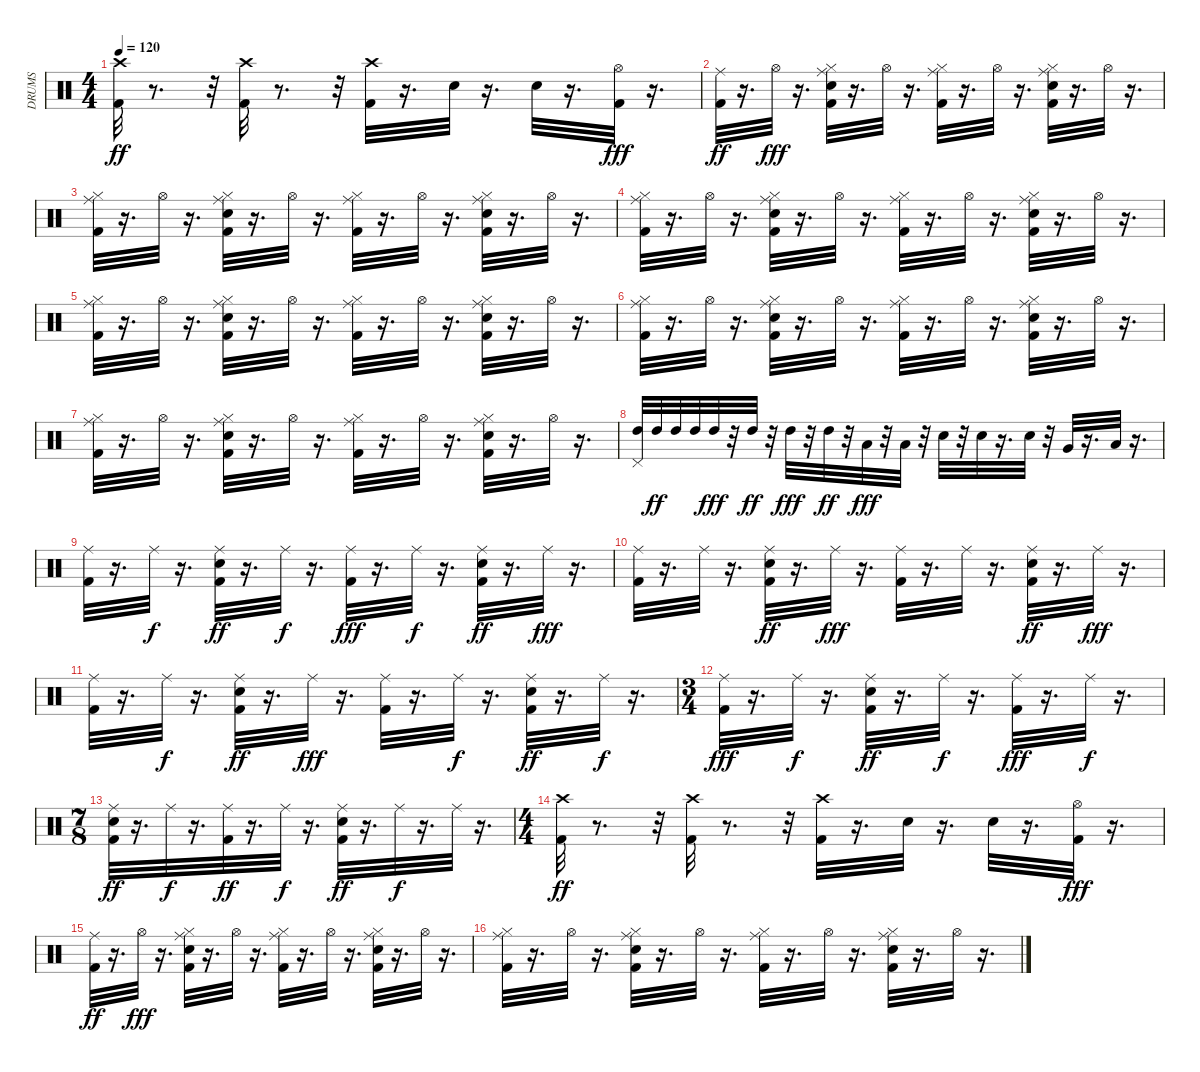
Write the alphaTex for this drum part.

\track ("DRUMS            " "DRUMS     ") {instrument percussion}
\staff {score}
\articulation defaults
\ts (4 4)
\tempo 120
\clef neutral
\ks c
("Kick (hit) 2" "Crash high (hit)").32{dy ff} r.8{d} r.32 ("Kick (hit) 2" "Crash high (hit)").32 r.8{d} r.32 ("Kick (hit) 2" "Crash high (hit)").32 r.16{d} "Snare (hit) 2".32 r.16{d} "Snare (hit) 2".32 r.16{d} ("Kick (hit) 2" "Hi-Hat (open)").32{dy fff} r.16{d} |
("Kick (hit) 2" "Ride (middle)").32{dy ff} r.16{d} "Hi-Hat (open)".32{dy fff} r.16{d} ("Kick (hit) 2" "Snare (hit) 2" "Ride (middle)" "Hi-Hat (closed)").32 r.16{d} "Hi-Hat (open)".32 r.16{d} ("Kick (hit) 2" "Ride (middle)" "Hi-Hat (closed)").32 r.16{d} "Hi-Hat (open)".32 r.16{d} ("Kick (hit) 2" "Snare (hit) 2" "Ride (middle)" "Hi-Hat (closed)").32 r.16{d} "Hi-Hat (open)".32 r.16{d} |
("Kick (hit) 2" "Ride (middle)" "Hi-Hat (closed)").32 r.16{d} "Hi-Hat (open)".32 r.16{d} ("Kick (hit) 2" "Snare (hit) 2" "Ride (middle)" "Hi-Hat (closed)").32 r.16{d} "Hi-Hat (open)".32 r.16{d} ("Kick (hit) 2" "Ride (middle)" "Hi-Hat (closed)").32 r.16{d} "Hi-Hat (open)".32 r.16{d} ("Kick (hit) 2" "Snare (hit) 2" "Ride (middle)" "Hi-Hat (closed)").32 r.16{d} "Hi-Hat (open)".32 r.16{d} |
("Kick (hit) 2" "Ride (middle)" "Hi-Hat (closed)").32 r.16{d} "Hi-Hat (open)".32 r.16{d} ("Kick (hit) 2" "Snare (hit) 2" "Ride (middle)" "Hi-Hat (closed)").32 r.16{d} "Hi-Hat (open)".32 r.16{d} ("Kick (hit) 2" "Ride (middle)" "Hi-Hat (closed)").32 r.16{d} "Hi-Hat (open)".32 r.16{d} ("Kick (hit) 2" "Snare (hit) 2" "Ride (middle)" "Hi-Hat (closed)").32 r.16{d} "Hi-Hat (open)".32 r.16{d} |
("Kick (hit) 2" "Ride (middle)" "Hi-Hat (closed)").32 r.16{d} "Hi-Hat (open)".32 r.16{d} ("Kick (hit) 2" "Snare (hit) 2" "Ride (middle)" "Hi-Hat (closed)").32 r.16{d} "Hi-Hat (open)".32 r.16{d} ("Kick (hit) 2" "Ride (middle)" "Hi-Hat (closed)").32 r.16{d} "Hi-Hat (open)".32 r.16{d} ("Kick (hit) 2" "Snare (hit) 2" "Ride (middle)" "Hi-Hat (closed)").32 r.16{d} "Hi-Hat (open)".32 r.16{d} |
("Kick (hit) 2" "Ride (middle)" "Hi-Hat (closed)").32 r.16{d} "Hi-Hat (open)".32 r.16{d} ("Kick (hit) 2" "Snare (hit) 2" "Ride (middle)" "Hi-Hat (closed)").32 r.16{d} "Hi-Hat (open)".32 r.16{d} ("Kick (hit) 2" "Ride (middle)" "Hi-Hat (closed)").32 r.16{d} "Hi-Hat (open)".32 r.16{d} ("Kick (hit) 2" "Snare (hit) 2" "Ride (middle)" "Hi-Hat (closed)").32 r.16{d} "Hi-Hat (open)".32 r.16{d} |
("Kick (hit) 2" "Ride (middle)" "Hi-Hat (closed)").32 r.16{d} "Hi-Hat (open)".32 r.16{d} ("Kick (hit) 2" "Snare (hit) 2" "Ride (middle)" "Hi-Hat (closed)").32 r.16{d} "Hi-Hat (open)".32 r.16{d} ("Kick (hit) 2" "Ride (middle)" "Hi-Hat (closed)").32 r.16{d} "Hi-Hat (open)".32 r.16{d} ("Kick (hit) 2" "Snare (hit) 2" "Ride (middle)" "Hi-Hat (closed)").32 r.16{d} "Hi-Hat (open)".32 r.16{d} |
("High Tom (hit)" "Pedal Hi-Hat (hit)").32 "High Tom (hit)".32{dy ff} "High Tom (hit)".32 "High Tom (hit)".32 "High Tom (hit)".32{dy fff} r.32 "High Tom (hit)".32{dy ff} r.32 "High Tom (hit)".32{dy fff} r.32 "High Tom (hit)".32{dy ff} r.32 "Low Tom (hit)".32{dy fff} r.32 "Low Tom (hit)".32 r.32 "Snare (hit) 2".32 r.32 "Snare (hit) 2".32 r.16{d} "Snare (hit) 2".32 r.32 "Very Low Tom (hit)".32 r.16{d} "Low Floor Tom (hit)".32 r.16{d} |
("Kick (hit) 2" "Ride (middle)").32 r.16{d} "Ride (middle)".32{dy f} r.16{d} ("Kick (hit) 2" "Snare (hit) 2" "Ride (middle)").32{dy ff} r.16{d} "Ride (middle)".32{dy f} r.16{d} ("Kick (hit) 2" "Ride (middle)").32{dy fff} r.16{d} "Ride (middle)".32{dy f} r.16{d} ("Kick (hit) 2" "Snare (hit) 2" "Ride (middle)").32{dy ff} r.16{d} "Ride (middle)".32{dy fff} r.16{d} |
("Ride (middle)" "Kick (hit) 2").32 r.16{d} "Ride (middle)".32 r.16{d} ("Ride (middle)" "Kick (hit) 2" "Snare (hit) 2").32{dy ff} r.16{d} "Ride (middle)".32{dy fff} r.16{d} ("Ride (middle)" "Kick (hit) 2").32 r.16{d} "Ride (middle)".32 r.16{d} ("Ride (middle)" "Kick (hit) 2" "Snare (hit) 2").32{dy ff} r.16{d} "Ride (middle)".32{dy fff} r.16{d} |
("Kick (hit) 2" "Ride (middle)").32 r.16{d} "Ride (middle)".32{dy f} r.16{d} ("Kick (hit) 2" "Snare (hit) 2" "Ride (middle)").32{dy ff} r.16{d} "Ride (middle)".32{dy fff} r.16{d} ("Kick (hit) 2" "Ride (middle)").32 r.16{d} "Ride (middle)".32{dy f} r.16{d} ("Kick (hit) 2" "Snare (hit) 2" "Ride (middle)").32{dy ff} r.16{d} "Ride (middle)".32{dy f} r.16{d} |
\ts (3 4)
("Kick (hit) 2" "Ride (middle)").32{dy fff} r.16{d} "Ride (middle)".32{dy f} r.16{d} ("Kick (hit) 2" "Snare (hit) 2" "Ride (middle)").32{dy ff} r.16{d} "Ride (middle)".32{dy f} r.16{d} ("Kick (hit) 2" "Ride (middle)").32{dy fff} r.16{d} "Ride (middle)".32{dy f} r.16{d} |
\ts (7 8)
("Kick (hit) 2" "Snare (hit) 2" "Ride (middle)").32{dy ff} r.16{d} "Ride (middle)".32{dy f} r.16{d} ("Kick (hit) 2" "Ride (middle)").32{dy ff} r.16{d} "Ride (middle)".32{dy f} r.16{d} ("Kick (hit) 2" "Snare (hit) 2" "Ride (middle)").32{dy ff} r.16{d} "Ride (middle)".32{dy f} r.16{d} "Ride (middle)".32 r.16{d} |
\ts (4 4)
("Kick (hit) 2" "Crash high (hit)").32{dy ff} r.8{d} r.32 ("Kick (hit) 2" "Crash high (hit)").32 r.8{d} r.32 ("Kick (hit) 2" "Crash high (hit)").32 r.16{d} "Snare (hit) 2".32 r.16{d} "Snare (hit) 2".32 r.16{d} ("Kick (hit) 2" "Hi-Hat (open)").32{dy fff} r.16{d} |
("Kick (hit) 2" "Ride (middle)").32{dy ff} r.16{d} "Hi-Hat (open)".32{dy fff} r.16{d} ("Kick (hit) 2" "Snare (hit) 2" "Ride (middle)" "Hi-Hat (closed)").32 r.16{d} "Hi-Hat (open)".32 r.16{d} ("Kick (hit) 2" "Ride (middle)" "Hi-Hat (closed)").32 r.16{d} "Hi-Hat (open)".32 r.16{d} ("Kick (hit) 2" "Snare (hit) 2" "Ride (middle)" "Hi-Hat (closed)").32 r.16{d} "Hi-Hat (open)".32 r.16{d} |
("Kick (hit) 2" "Ride (middle)" "Hi-Hat (closed)").32 r.16{d} "Hi-Hat (open)".32 r.16{d} ("Kick (hit) 2" "Snare (hit) 2" "Ride (middle)" "Hi-Hat (closed)").32 r.16{d} "Hi-Hat (open)".32 r.16{d} ("Kick (hit) 2" "Ride (middle)" "Hi-Hat (closed)").32 r.16{d} "Hi-Hat (open)".32 r.16{d} ("Kick (hit) 2" "Snare (hit) 2" "Ride (middle)" "Hi-Hat (closed)").32 r.16{d} "Hi-Hat (open)".32 r.16{d}
